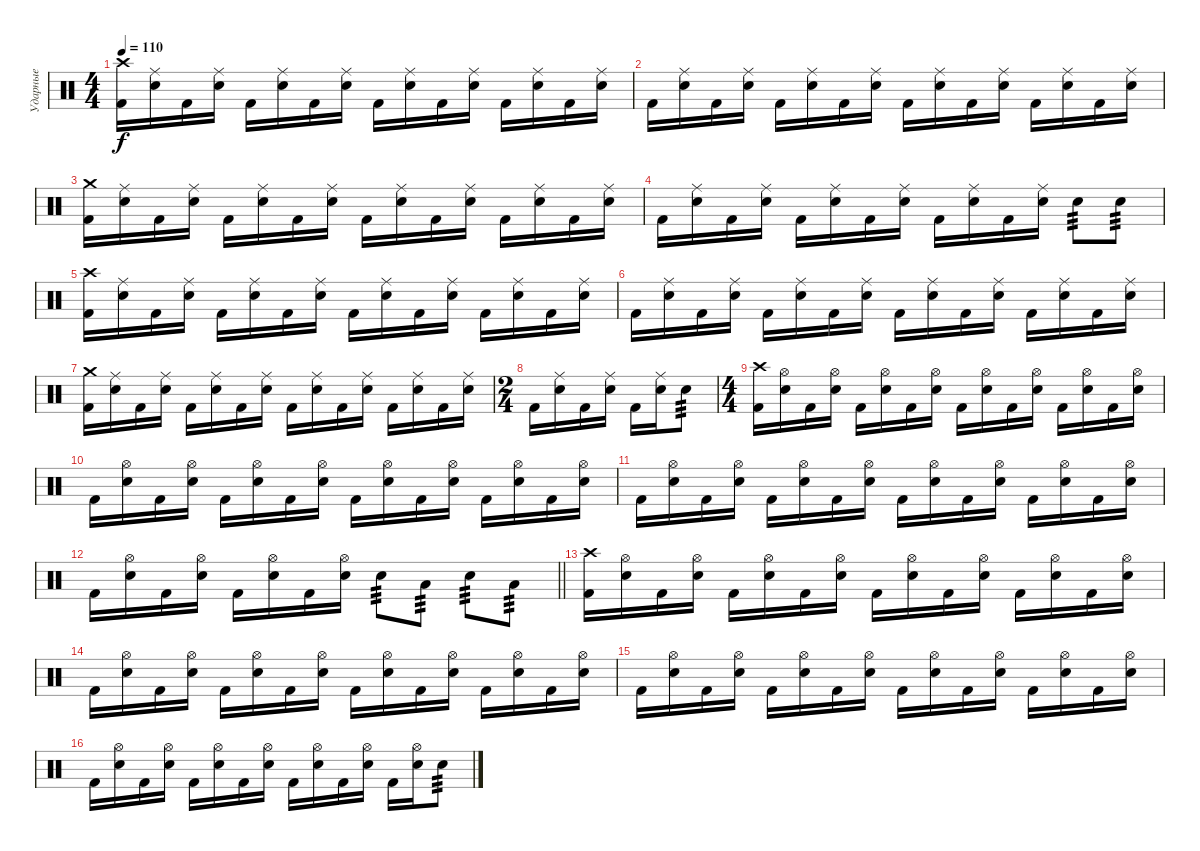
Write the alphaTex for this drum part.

\track ("Ударные" "Ударные") {instrument percussion}
\staff {score}
\articulation defaults
\ts (4 4)
\tempo 110
\clef neutral
\ks c
("Crash high (hit)" "Kick (hit) 2").16{dy f} ("Ride (middle)" "Electric Snare (hit)").16 "Kick (hit) 2".16 ("Ride (middle)" "Electric Snare (hit)").16 "Kick (hit) 2".16 ("Ride (middle)" "Electric Snare (hit)").16 "Kick (hit) 2".16 ("Ride (middle)" "Electric Snare (hit)").16 "Kick (hit) 2".16 ("Ride (middle)" "Electric Snare (hit)").16 "Kick (hit) 2".16 ("Ride (middle)" "Electric Snare (hit)").16 "Kick (hit) 2".16 ("Ride (middle)" "Electric Snare (hit)").16 "Kick (hit) 2".16 ("Ride (middle)" "Electric Snare (hit)").16 |
"Kick (hit) 2".16 ("Ride (middle)" "Electric Snare (hit)").16 "Kick (hit) 2".16 ("Ride (middle)" "Electric Snare (hit)").16 "Kick (hit) 2".16 ("Ride (middle)" "Electric Snare (hit)").16 "Kick (hit) 2".16 ("Ride (middle)" "Electric Snare (hit)").16 "Kick (hit) 2".16 ("Ride (middle)" "Electric Snare (hit)").16 "Kick (hit) 2".16 ("Ride (middle)" "Electric Snare (hit)").16 "Kick (hit) 2".16 ("Ride (middle)" "Electric Snare (hit)").16 "Kick (hit) 2".16 ("Ride (middle)" "Electric Snare (hit)").16 |
("Crash medium (hit)" "Kick (hit) 2").16 ("Ride (middle)" "Electric Snare (hit)").16 "Kick (hit) 2".16 ("Ride (middle)" "Electric Snare (hit)").16 "Kick (hit) 2".16 ("Ride (middle)" "Electric Snare (hit)").16 "Kick (hit) 2".16 ("Ride (middle)" "Electric Snare (hit)").16 "Kick (hit) 2".16 ("Ride (middle)" "Electric Snare (hit)").16 "Kick (hit) 2".16 ("Ride (middle)" "Electric Snare (hit)").16 "Kick (hit) 2".16 ("Ride (middle)" "Electric Snare (hit)").16 "Kick (hit) 2".16 ("Ride (middle)" "Electric Snare (hit)").16 |
"Kick (hit) 2".16 ("Ride (middle)" "Electric Snare (hit)").16 "Kick (hit) 2".16 ("Ride (middle)" "Electric Snare (hit)").16 "Kick (hit) 2".16 ("Ride (middle)" "Electric Snare (hit)").16 "Kick (hit) 2".16 ("Ride (middle)" "Electric Snare (hit)").16 "Kick (hit) 2".16 ("Ride (middle)" "Electric Snare (hit)").16 "Kick (hit) 2".16 ("Ride (middle)" "Electric Snare (hit)").16 "Electric Snare (hit)".8{tp 3} "Electric Snare (hit)".8{tp 3} |
("Crash high (hit)" "Kick (hit) 2").16 ("Ride (middle)" "Electric Snare (hit)").16 "Kick (hit) 2".16 ("Ride (middle)" "Electric Snare (hit)").16 "Kick (hit) 2".16 ("Ride (middle)" "Electric Snare (hit)").16 "Kick (hit) 2".16 ("Ride (middle)" "Electric Snare (hit)").16 "Kick (hit) 2".16 ("Ride (middle)" "Electric Snare (hit)").16 "Kick (hit) 2".16 ("Ride (middle)" "Electric Snare (hit)").16 "Kick (hit) 2".16 ("Ride (middle)" "Electric Snare (hit)").16 "Kick (hit) 2".16 ("Ride (middle)" "Electric Snare (hit)").16 |
"Kick (hit) 2".16 ("Ride (middle)" "Electric Snare (hit)").16 "Kick (hit) 2".16 ("Ride (middle)" "Electric Snare (hit)").16 "Kick (hit) 2".16 ("Ride (middle)" "Electric Snare (hit)").16 "Kick (hit) 2".16 ("Ride (middle)" "Electric Snare (hit)").16 "Kick (hit) 2".16 ("Ride (middle)" "Electric Snare (hit)").16 "Kick (hit) 2".16 ("Ride (middle)" "Electric Snare (hit)").16 "Kick (hit) 2".16 ("Ride (middle)" "Electric Snare (hit)").16 "Kick (hit) 2".16 ("Ride (middle)" "Electric Snare (hit)").16 |
("Crash medium (hit)" "Kick (hit) 2").16 ("Ride (middle)" "Electric Snare (hit)").16 "Kick (hit) 2".16 ("Ride (middle)" "Electric Snare (hit)").16 "Kick (hit) 2".16 ("Ride (middle)" "Electric Snare (hit)").16 "Kick (hit) 2".16 ("Ride (middle)" "Electric Snare (hit)").16 "Kick (hit) 2".16 ("Ride (middle)" "Electric Snare (hit)").16 "Kick (hit) 2".16 ("Ride (middle)" "Electric Snare (hit)").16 "Kick (hit) 2".16 ("Ride (middle)" "Electric Snare (hit)").16 "Kick (hit) 2".16 ("Ride (middle)" "Electric Snare (hit)").16 |
\ts (2 4)
"Kick (hit) 2".16 ("Ride (middle)" "Electric Snare (hit)").16 "Kick (hit) 2".16 ("Ride (middle)" "Electric Snare (hit)").16 "Kick (hit) 2".16 ("Ride (middle)" "Electric Snare (hit)").16 "Electric Snare (hit)".8{tp 3} |
\ts (4 4)
("Crash high (hit)" "Kick (hit) 2").16 ("Hi-Hat (open)" "Electric Snare (hit)").16 "Kick (hit) 2".16 ("Hi-Hat (open)" "Electric Snare (hit)").16 "Kick (hit) 2".16 ("Hi-Hat (open)" "Electric Snare (hit)").16 "Kick (hit) 2".16 ("Hi-Hat (open)" "Electric Snare (hit)").16 "Kick (hit) 2".16 ("Hi-Hat (open)" "Electric Snare (hit)").16 "Kick (hit) 2".16 ("Hi-Hat (open)" "Electric Snare (hit)").16 "Kick (hit) 2".16 ("Hi-Hat (open)" "Electric Snare (hit)").16 "Kick (hit) 2".16 ("Hi-Hat (open)" "Electric Snare (hit)").16 |
"Kick (hit) 2".16 ("Hi-Hat (open)" "Electric Snare (hit)").16 "Kick (hit) 2".16 ("Hi-Hat (open)" "Electric Snare (hit)").16 "Kick (hit) 2".16 ("Hi-Hat (open)" "Electric Snare (hit)").16 "Kick (hit) 2".16 ("Hi-Hat (open)" "Electric Snare (hit)").16 "Kick (hit) 2".16 ("Hi-Hat (open)" "Electric Snare (hit)").16 "Kick (hit) 2".16 ("Hi-Hat (open)" "Electric Snare (hit)").16 "Kick (hit) 2".16 ("Hi-Hat (open)" "Electric Snare (hit)").16 "Kick (hit) 2".16 ("Hi-Hat (open)" "Electric Snare (hit)").16 |
"Kick (hit) 2".16 ("Hi-Hat (open)" "Electric Snare (hit)").16 "Kick (hit) 2".16 ("Hi-Hat (open)" "Electric Snare (hit)").16 "Kick (hit) 2".16 ("Hi-Hat (open)" "Electric Snare (hit)").16 "Kick (hit) 2".16 ("Hi-Hat (open)" "Electric Snare (hit)").16 "Kick (hit) 2".16 ("Hi-Hat (open)" "Electric Snare (hit)").16 "Kick (hit) 2".16 ("Hi-Hat (open)" "Electric Snare (hit)").16 "Kick (hit) 2".16 ("Hi-Hat (open)" "Electric Snare (hit)").16 "Kick (hit) 2".16 ("Hi-Hat (open)" "Electric Snare (hit)").16 |
\barLineRight lightlight "Kick (hit) 2".16
("Hi-Hat (open)" "Electric Snare (hit)").16 "Kick (hit) 2".16 ("Hi-Hat (open)" "Electric Snare (hit)").16 "Kick (hit) 2".16 ("Hi-Hat (open)" "Electric Snare (hit)").16 "Kick (hit) 2".16 ("Hi-Hat (open)" "Electric Snare (hit)").16 "Electric Snare (hit)".8{tp 3} "Low Tom (hit)".8{tp 3} "Electric Snare (hit)".8{tp 3} "Low Tom (hit)".8{tp 3} |
("Crash high (hit)" "Kick (hit) 2").16 ("Hi-Hat (open)" "Electric Snare (hit)").16 "Kick (hit) 2".16 ("Hi-Hat (open)" "Electric Snare (hit)").16 "Kick (hit) 2".16 ("Hi-Hat (open)" "Electric Snare (hit)").16 "Kick (hit) 2".16 ("Hi-Hat (open)" "Electric Snare (hit)").16 "Kick (hit) 2".16 ("Hi-Hat (open)" "Electric Snare (hit)").16 "Kick (hit) 2".16 ("Hi-Hat (open)" "Electric Snare (hit)").16 "Kick (hit) 2".16 ("Hi-Hat (open)" "Electric Snare (hit)").16 "Kick (hit) 2".16 ("Hi-Hat (open)" "Electric Snare (hit)").16 |
"Kick (hit) 2".16 ("Hi-Hat (open)" "Electric Snare (hit)").16 "Kick (hit) 2".16 ("Hi-Hat (open)" "Electric Snare (hit)").16 "Kick (hit) 2".16 ("Hi-Hat (open)" "Electric Snare (hit)").16 "Kick (hit) 2".16 ("Hi-Hat (open)" "Electric Snare (hit)").16 "Kick (hit) 2".16 ("Hi-Hat (open)" "Electric Snare (hit)").16 "Kick (hit) 2".16 ("Hi-Hat (open)" "Electric Snare (hit)").16 "Kick (hit) 2".16 ("Hi-Hat (open)" "Electric Snare (hit)").16 "Kick (hit) 2".16 ("Hi-Hat (open)" "Electric Snare (hit)").16 |
"Kick (hit) 2".16 ("Hi-Hat (open)" "Electric Snare (hit)").16 "Kick (hit) 2".16 ("Hi-Hat (open)" "Electric Snare (hit)").16 "Kick (hit) 2".16 ("Hi-Hat (open)" "Electric Snare (hit)").16 "Kick (hit) 2".16 ("Hi-Hat (open)" "Electric Snare (hit)").16 "Kick (hit) 2".16 ("Hi-Hat (open)" "Electric Snare (hit)").16 "Kick (hit) 2".16 ("Hi-Hat (open)" "Electric Snare (hit)").16 "Kick (hit) 2".16 ("Hi-Hat (open)" "Electric Snare (hit)").16 "Kick (hit) 2".16 ("Hi-Hat (open)" "Electric Snare (hit)").16 |
"Kick (hit) 2".16 ("Hi-Hat (open)" "Electric Snare (hit)").16 "Kick (hit) 2".16 ("Hi-Hat (open)" "Electric Snare (hit)").16 "Kick (hit) 2".16 ("Hi-Hat (open)" "Electric Snare (hit)").16 "Kick (hit) 2".16 ("Hi-Hat (open)" "Electric Snare (hit)").16 "Kick (hit) 2".16 ("Hi-Hat (open)" "Electric Snare (hit)").16 "Kick (hit) 2".16 ("Hi-Hat (open)" "Electric Snare (hit)").16 "Kick (hit) 2".16 ("Hi-Hat (open)" "Electric Snare (hit)").16 "Electric Snare (hit)".8{tp 3}
